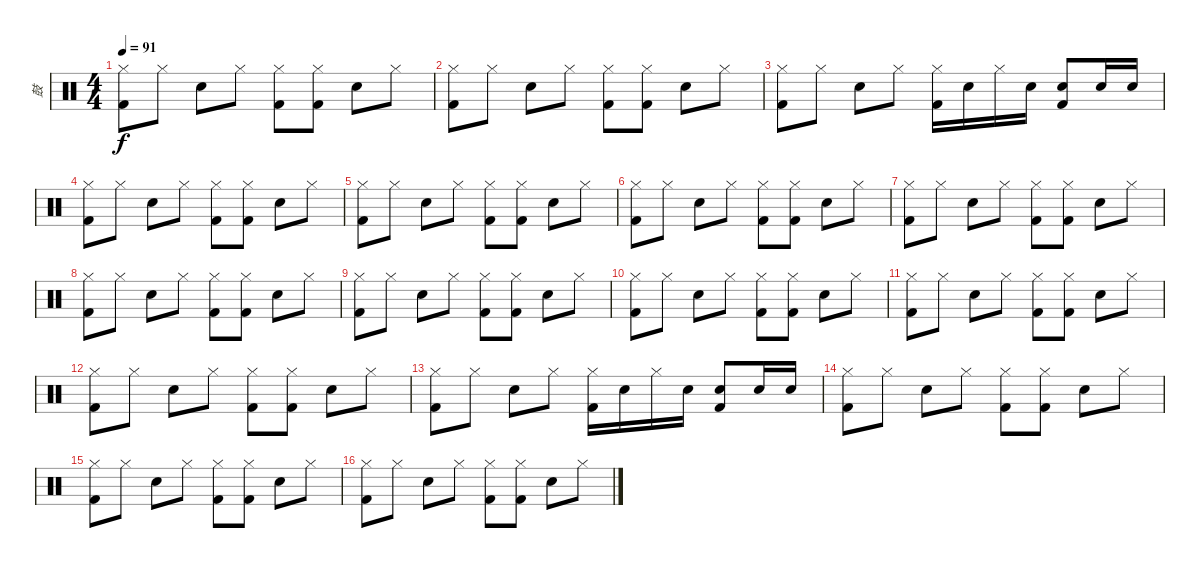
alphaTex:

\track ("鼓" "鼓") {instrument percussion}
\staff {score}
\articulation defaults
\ts (4 4)
\tempo 91
\clef neutral
\ks c
("Hi-Hat (closed)" "Kick (hit) 2").8{dy f} "Hi-Hat (closed)".8 "Snare (hit) 2".8 "Hi-Hat (closed)".8 ("Hi-Hat (closed)" "Kick (hit) 2").8 ("Hi-Hat (closed)" "Kick (hit) 2").8 "Snare (hit) 2".8 "Hi-Hat (closed)".8 |
("Hi-Hat (closed)" "Kick (hit) 2").8 "Hi-Hat (closed)".8 "Snare (hit) 2".8 "Hi-Hat (closed)".8 ("Hi-Hat (closed)" "Kick (hit) 2").8 ("Hi-Hat (closed)" "Kick (hit) 2").8 "Snare (hit) 2".8 "Hi-Hat (closed)".8 |
("Hi-Hat (closed)" "Kick (hit) 2").8 "Hi-Hat (closed)".8 "Snare (hit) 2".8 "Hi-Hat (closed)".8 ("Hi-Hat (closed)" "Kick (hit) 2").16 "Snare (hit) 2".16 "Hi-Hat (closed)".16 "Snare (hit) 2".16 ("Snare (hit) 2" "Kick (hit) 2").8 "Snare (hit) 2".16 "Snare (hit) 2".16 |
("Hi-Hat (closed)" "Kick (hit) 2").8 "Hi-Hat (closed)".8 "Snare (hit) 2".8 "Hi-Hat (closed)".8 ("Hi-Hat (closed)" "Kick (hit) 2").8 ("Hi-Hat (closed)" "Kick (hit) 2").8 "Snare (hit) 2".8 "Hi-Hat (closed)".8 |
("Hi-Hat (closed)" "Kick (hit) 2").8 "Hi-Hat (closed)".8 "Snare (hit) 2".8 "Hi-Hat (closed)".8 ("Hi-Hat (closed)" "Kick (hit) 2").8 ("Hi-Hat (closed)" "Kick (hit) 2").8 "Snare (hit) 2".8 "Hi-Hat (closed)".8 |
("Hi-Hat (closed)" "Kick (hit) 2").8 "Hi-Hat (closed)".8 "Snare (hit) 2".8 "Hi-Hat (closed)".8 ("Hi-Hat (closed)" "Kick (hit) 2").8 ("Hi-Hat (closed)" "Kick (hit) 2").8 "Snare (hit) 2".8 "Hi-Hat (closed)".8 |
("Hi-Hat (closed)" "Kick (hit) 2").8 "Hi-Hat (closed)".8 "Snare (hit) 2".8 "Hi-Hat (closed)".8 ("Hi-Hat (closed)" "Kick (hit) 2").8 ("Hi-Hat (closed)" "Kick (hit) 2").8 "Snare (hit) 2".8 "Hi-Hat (closed)".8 |
("Hi-Hat (closed)" "Kick (hit) 2").8 "Hi-Hat (closed)".8 "Snare (hit) 2".8 "Hi-Hat (closed)".8 ("Hi-Hat (closed)" "Kick (hit) 2").8 ("Hi-Hat (closed)" "Kick (hit) 2").8 "Snare (hit) 2".8 "Hi-Hat (closed)".8 |
("Hi-Hat (closed)" "Kick (hit) 2").8 "Hi-Hat (closed)".8 "Snare (hit) 2".8 "Hi-Hat (closed)".8 ("Hi-Hat (closed)" "Kick (hit) 2").8 ("Hi-Hat (closed)" "Kick (hit) 2").8 "Snare (hit) 2".8 "Hi-Hat (closed)".8 |
("Hi-Hat (closed)" "Kick (hit) 2").8 "Hi-Hat (closed)".8 "Snare (hit) 2".8 "Hi-Hat (closed)".8 ("Hi-Hat (closed)" "Kick (hit) 2").8 ("Hi-Hat (closed)" "Kick (hit) 2").8 "Snare (hit) 2".8 "Hi-Hat (closed)".8 |
("Hi-Hat (closed)" "Kick (hit) 2").8 "Hi-Hat (closed)".8 "Snare (hit) 2".8 "Hi-Hat (closed)".8 ("Hi-Hat (closed)" "Kick (hit) 2").8 ("Hi-Hat (closed)" "Kick (hit) 2").8 "Snare (hit) 2".8 "Hi-Hat (closed)".8 |
("Hi-Hat (closed)" "Kick (hit) 2").8 "Hi-Hat (closed)".8 "Snare (hit) 2".8 "Hi-Hat (closed)".8 ("Hi-Hat (closed)" "Kick (hit) 2").8 ("Hi-Hat (closed)" "Kick (hit) 2").8 "Snare (hit) 2".8 "Hi-Hat (closed)".8 |
("Hi-Hat (closed)" "Kick (hit) 2").8 "Hi-Hat (closed)".8 "Snare (hit) 2".8 "Hi-Hat (closed)".8 ("Hi-Hat (closed)" "Kick (hit) 2").16 "Snare (hit) 2".16 "Hi-Hat (closed)".16 "Snare (hit) 2".16 ("Snare (hit) 2" "Kick (hit) 2").8 "Snare (hit) 2".16 "Snare (hit) 2".16 |
("Hi-Hat (closed)" "Kick (hit) 2").8 "Hi-Hat (closed)".8 "Snare (hit) 2".8 "Hi-Hat (closed)".8 ("Hi-Hat (closed)" "Kick (hit) 2").8 ("Hi-Hat (closed)" "Kick (hit) 2").8 "Snare (hit) 2".8 "Hi-Hat (closed)".8 |
("Hi-Hat (closed)" "Kick (hit) 2").8 "Hi-Hat (closed)".8 "Snare (hit) 2".8 "Hi-Hat (closed)".8 ("Hi-Hat (closed)" "Kick (hit) 2").8 ("Hi-Hat (closed)" "Kick (hit) 2").8 "Snare (hit) 2".8 "Hi-Hat (closed)".8 |
("Hi-Hat (closed)" "Kick (hit) 2").8 "Hi-Hat (closed)".8 "Snare (hit) 2".8 "Hi-Hat (closed)".8 ("Hi-Hat (closed)" "Kick (hit) 2").8 ("Hi-Hat (closed)" "Kick (hit) 2").8 "Snare (hit) 2".8 "Hi-Hat (closed)".8
